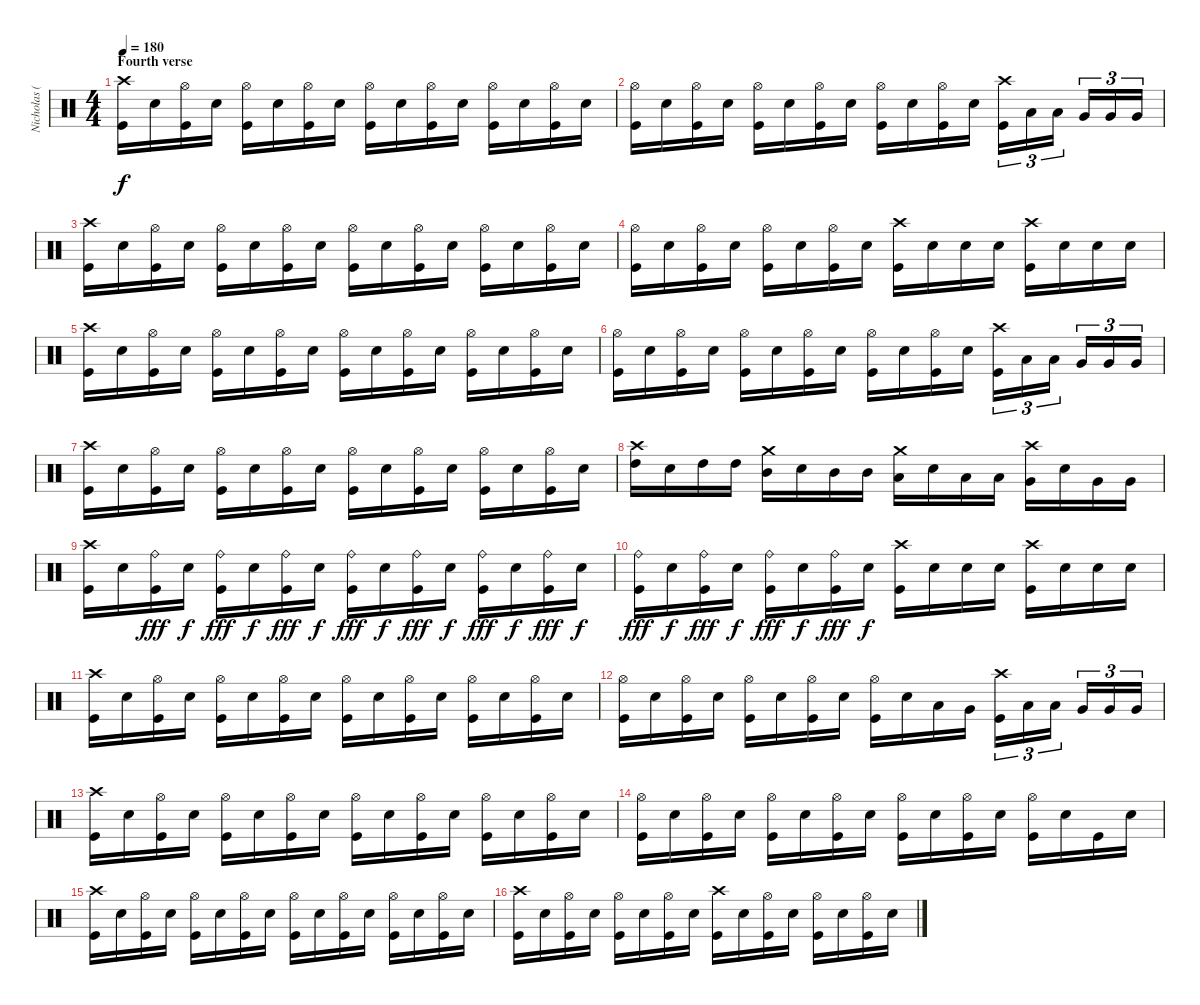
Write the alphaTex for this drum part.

\track ("Nicholas (Drums)" "Nicholas (") {instrument percussion}
\staff {score}
\articulation defaults
\ts (4 4)
\section ("" "Fourth verse")
\tempo 180
\clef neutral
\ks c
("Crash high (hit)" "Kick (hit)").16{dy f} "Electric Snare (hit)".16 ("Hi-Hat (open)" "Kick (hit)").16 "Electric Snare (hit)".16 ("Hi-Hat (open)" "Kick (hit)").16 "Electric Snare (hit)".16 ("Hi-Hat (open)" "Kick (hit)").16 "Electric Snare (hit)".16 ("Hi-Hat (open)" "Kick (hit)").16 "Electric Snare (hit)".16 ("Hi-Hat (open)" "Kick (hit)").16 "Electric Snare (hit)".16 ("Hi-Hat (open)" "Kick (hit)").16 "Electric Snare (hit)".16 ("Hi-Hat (open)" "Kick (hit)").16 "Electric Snare (hit)".16 |
("Hi-Hat (open)" "Kick (hit)").16 "Electric Snare (hit)".16 ("Hi-Hat (open)" "Kick (hit)").16 "Electric Snare (hit)".16 ("Hi-Hat (open)" "Kick (hit)").16 "Electric Snare (hit)".16 ("Hi-Hat (open)" "Kick (hit)").16 "Electric Snare (hit)".16 ("Hi-Hat (open)" "Kick (hit)").16 "Electric Snare (hit)".16 ("Hi-Hat (open)" "Kick (hit)").16 "Electric Snare (hit)".16 ("Crash high (hit)" "Kick (hit)").16{tu (3 2)} "Low Tom (hit)".16{tu (3 2)} "Low Tom (hit)".16{tu (3 2)} "Very Low Tom (hit)".16{tu (3 2)} "Very Low Tom (hit)".16{tu (3 2)} "Very Low Tom (hit)".16{tu (3 2)} |
("Crash high (hit)" "Kick (hit)").16 "Electric Snare (hit)".16 ("Hi-Hat (open)" "Kick (hit)").16 "Electric Snare (hit)".16 ("Hi-Hat (open)" "Kick (hit)").16 "Electric Snare (hit)".16 ("Hi-Hat (open)" "Kick (hit)").16 "Electric Snare (hit)".16 ("Hi-Hat (open)" "Kick (hit)").16 "Electric Snare (hit)".16 ("Hi-Hat (open)" "Kick (hit)").16 "Electric Snare (hit)".16 ("Hi-Hat (open)" "Kick (hit)").16 "Electric Snare (hit)".16 ("Hi-Hat (open)" "Kick (hit)").16 "Electric Snare (hit)".16 |
("Hi-Hat (open)" "Kick (hit)").16 "Electric Snare (hit)".16 ("Hi-Hat (open)" "Kick (hit)").16 "Electric Snare (hit)".16 ("Hi-Hat (open)" "Kick (hit)").16 "Electric Snare (hit)".16 ("Hi-Hat (open)" "Kick (hit)").16 "Electric Snare (hit)".16 ("Crash high (hit)" "Kick (hit)").16 "Electric Snare (hit)".16 "Electric Snare (hit)".16 "Electric Snare (hit)".16 ("Crash high (hit)" "Kick (hit)").16 "Electric Snare (hit)".16 "Electric Snare (hit)".16 "Electric Snare (hit)".16 |
("Crash high (hit)" "Kick (hit)").16 "Electric Snare (hit)".16 ("Hi-Hat (open)" "Kick (hit)").16 "Electric Snare (hit)".16 ("Hi-Hat (open)" "Kick (hit)").16 "Electric Snare (hit)".16 ("Hi-Hat (open)" "Kick (hit)").16 "Electric Snare (hit)".16 ("Hi-Hat (open)" "Kick (hit)").16 "Electric Snare (hit)".16 ("Hi-Hat (open)" "Kick (hit)").16 "Electric Snare (hit)".16 ("Hi-Hat (open)" "Kick (hit)").16 "Electric Snare (hit)".16 ("Hi-Hat (open)" "Kick (hit)").16 "Electric Snare (hit)".16 |
("Hi-Hat (open)" "Kick (hit)").16 "Electric Snare (hit)".16 ("Hi-Hat (open)" "Kick (hit)").16 "Electric Snare (hit)".16 ("Hi-Hat (open)" "Kick (hit)").16 "Electric Snare (hit)".16 ("Hi-Hat (open)" "Kick (hit)").16 "Electric Snare (hit)".16 ("Hi-Hat (open)" "Kick (hit)").16 "Electric Snare (hit)".16 ("Hi-Hat (open)" "Kick (hit)").16 "Electric Snare (hit)".16 ("Crash high (hit)" "Kick (hit)").16{tu (3 2)} "Low Tom (hit)".16{tu (3 2)} "Low Tom (hit)".16{tu (3 2)} "Very Low Tom (hit)".16{tu (3 2)} "Very Low Tom (hit)".16{tu (3 2)} "Very Low Tom (hit)".16{tu (3 2)} |
("Crash high (hit)" "Kick (hit)").16 "Electric Snare (hit)".16 ("Hi-Hat (open)" "Kick (hit)").16 "Electric Snare (hit)".16 ("Hi-Hat (open)" "Kick (hit)").16 "Electric Snare (hit)".16 ("Hi-Hat (open)" "Kick (hit)").16 "Electric Snare (hit)".16 ("Hi-Hat (open)" "Kick (hit)").16 "Electric Snare (hit)".16 ("Hi-Hat (open)" "Kick (hit)").16 "Electric Snare (hit)".16 ("Hi-Hat (open)" "Kick (hit)").16 "Electric Snare (hit)".16 ("Hi-Hat (open)" "Kick (hit)").16 "Electric Snare (hit)".16 |
("Crash high (hit)" "High Tom (hit)").16 "Electric Snare (hit)".16 "High Tom (hit)".16 "High Tom (hit)".16 ("Crash medium (hit)" "Mid Tom (hit)").16 "Electric Snare (hit)".16 "Mid Tom (hit)".16 "Mid Tom (hit)".16 ("Crash medium (hit)" "Low Tom (hit)").16 "Electric Snare (hit)".16 "Low Tom (hit)".16 "Low Tom (hit)".16 ("Crash high (hit)" "Very Low Tom (hit)").16 "Electric Snare (hit)".16 "Very Low Tom (hit)".16 "Very Low Tom (hit)".16 |
("Crash high (hit)" "Kick (hit)").16 "Electric Snare (hit)".16 ("Ride (bell)" "Kick (hit)").16{dy fff} "Electric Snare (hit)".16{dy f} ("Ride (bell)" "Kick (hit)").16{dy fff} "Electric Snare (hit)".16{dy f} ("Ride (bell)" "Kick (hit)").16{dy fff} "Electric Snare (hit)".16{dy f} ("Ride (bell)" "Kick (hit)").16{dy fff} "Electric Snare (hit)".16{dy f} ("Ride (bell)" "Kick (hit)").16{dy fff} "Electric Snare (hit)".16{dy f} ("Ride (bell)" "Kick (hit)").16{dy fff} "Electric Snare (hit)".16{dy f} ("Ride (bell)" "Kick (hit)").16{dy fff} "Electric Snare (hit)".16{dy f} |
("Ride (bell)" "Kick (hit)").16{dy fff} "Electric Snare (hit)".16{dy f} ("Ride (bell)" "Kick (hit)").16{dy fff} "Electric Snare (hit)".16{dy f} ("Ride (bell)" "Kick (hit)").16{dy fff} "Electric Snare (hit)".16{dy f} ("Ride (bell)" "Kick (hit)").16{dy fff} "Electric Snare (hit)".16{dy f} ("Crash high (hit)" "Kick (hit)").16 "Electric Snare (hit)".16 "Electric Snare (hit)".16 "Electric Snare (hit)".16 ("Crash high (hit)" "Kick (hit)").16 "Electric Snare (hit)".16 "Electric Snare (hit)".16 "Electric Snare (hit)".16 |
("Crash high (hit)" "Kick (hit)").16 "Electric Snare (hit)".16 ("Hi-Hat (open)" "Kick (hit)").16 "Electric Snare (hit)".16 ("Hi-Hat (open)" "Kick (hit)").16 "Electric Snare (hit)".16 ("Hi-Hat (open)" "Kick (hit)").16 "Electric Snare (hit)".16 ("Hi-Hat (open)" "Kick (hit)").16 "Electric Snare (hit)".16 ("Hi-Hat (open)" "Kick (hit)").16 "Electric Snare (hit)".16 ("Hi-Hat (open)" "Kick (hit)").16 "Electric Snare (hit)".16 ("Hi-Hat (open)" "Kick (hit)").16 "Electric Snare (hit)".16 |
("Hi-Hat (open)" "Kick (hit)").16 "Electric Snare (hit)".16 ("Hi-Hat (open)" "Kick (hit)").16 "Electric Snare (hit)".16 ("Hi-Hat (open)" "Kick (hit)").16 "Electric Snare (hit)".16 ("Hi-Hat (open)" "Kick (hit)").16 "Electric Snare (hit)".16 ("Hi-Hat (open)" "Kick (hit)").16 "Electric Snare (hit)".16 "Low Tom (hit)".16 "Very Low Tom (hit)".16 ("Crash high (hit)" "Kick (hit)").16{tu (3 2)} "Low Tom (hit)".16{tu (3 2)} "Low Tom (hit)".16{tu (3 2)} "Very Low Tom (hit)".16{tu (3 2)} "Very Low Tom (hit)".16{tu (3 2)} "Very Low Tom (hit)".16{tu (3 2)} |
("Crash high (hit)" "Kick (hit)").16 "Electric Snare (hit)".16 ("Hi-Hat (open)" "Kick (hit)").16 "Electric Snare (hit)".16 ("Hi-Hat (open)" "Kick (hit)").16 "Electric Snare (hit)".16 ("Hi-Hat (open)" "Kick (hit)").16 "Electric Snare (hit)".16 ("Hi-Hat (open)" "Kick (hit)").16 "Electric Snare (hit)".16 ("Hi-Hat (open)" "Kick (hit)").16 "Electric Snare (hit)".16 ("Hi-Hat (open)" "Kick (hit)").16 "Electric Snare (hit)".16 ("Hi-Hat (open)" "Kick (hit)").16 "Electric Snare (hit)".16 |
("Hi-Hat (open)" "Kick (hit)").16 "Electric Snare (hit)".16 ("Hi-Hat (open)" "Kick (hit)").16 "Electric Snare (hit)".16 ("Hi-Hat (open)" "Kick (hit)").16 "Electric Snare (hit)".16 ("Hi-Hat (open)" "Kick (hit)").16 "Electric Snare (hit)".16 ("Hi-Hat (open)" "Kick (hit)").16 "Electric Snare (hit)".16 ("Hi-Hat (open)" "Kick (hit)").16 "Electric Snare (hit)".16 ("Hi-Hat (open)" "Kick (hit)").16 "Electric Snare (hit)".16 "Kick (hit)".16 "Electric Snare (hit)".16 |
("Crash high (hit)" "Kick (hit)").16 "Electric Snare (hit)".16 ("Hi-Hat (open)" "Kick (hit)").16 "Electric Snare (hit)".16 ("Hi-Hat (open)" "Kick (hit)").16 "Electric Snare (hit)".16 ("Hi-Hat (open)" "Kick (hit)").16 "Electric Snare (hit)".16 ("Hi-Hat (open)" "Kick (hit)").16 "Electric Snare (hit)".16 ("Hi-Hat (open)" "Kick (hit)").16 "Electric Snare (hit)".16 ("Hi-Hat (open)" "Kick (hit)").16 "Electric Snare (hit)".16 ("Hi-Hat (open)" "Kick (hit)").16 "Electric Snare (hit)".16 |
("Crash high (hit)" "Kick (hit)").16 "Electric Snare (hit)".16 ("Hi-Hat (open)" "Kick (hit)").16 "Electric Snare (hit)".16 ("Hi-Hat (open)" "Kick (hit)").16 "Electric Snare (hit)".16 ("Hi-Hat (open)" "Kick (hit)").16 "Electric Snare (hit)".16 ("Crash high (hit)" "Kick (hit)").16 "Electric Snare (hit)".16 ("Hi-Hat (open)" "Kick (hit)").16 "Electric Snare (hit)".16 ("Hi-Hat (open)" "Kick (hit)").16 "Electric Snare (hit)".16 ("Hi-Hat (open)" "Kick (hit)").16 "Electric Snare (hit)".16
